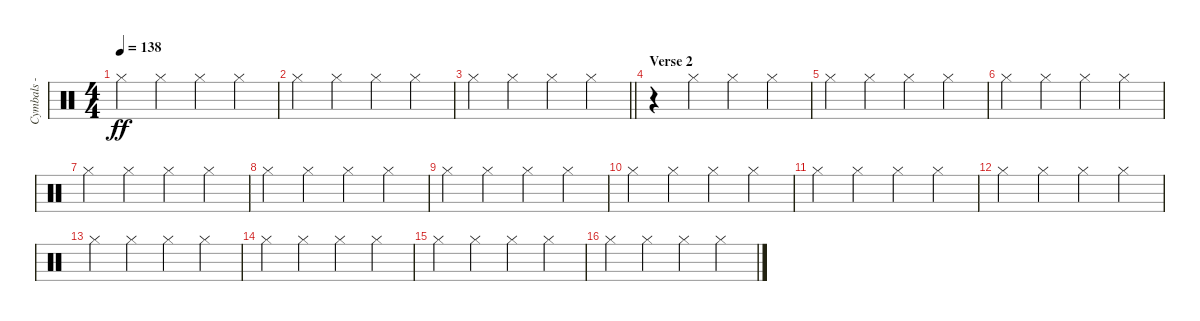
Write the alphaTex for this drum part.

\track ("Cymbals - hi-hat" "Cymbals - ") {instrument percussion}
\staff {score}
\articulation defaults
\ts (4 4)
\tempo 138
\clef neutral
\ks c "Hi-Hat (closed)".4{dy ff} "Hi-Hat (closed)".4 "Hi-Hat (closed)".4 "Hi-Hat (closed)".4
|
"Hi-Hat (closed)".4 "Hi-Hat (closed)".4 "Hi-Hat (closed)".4 "Hi-Hat (closed)".4 |
\barLineRight lightlight "Hi-Hat (closed)".4 "Hi-Hat (closed)".4 "Hi-Hat (closed)".4 "Hi-Hat (closed)".4
|
\section ("" "Verse 2")
r.4 "Hi-Hat (closed)".4 "Hi-Hat (closed)".4 "Hi-Hat (closed)".4 |
"Hi-Hat (closed)".4 "Hi-Hat (closed)".4 "Hi-Hat (closed)".4 "Hi-Hat (closed)".4 |
"Hi-Hat (closed)".4 "Hi-Hat (closed)".4 "Hi-Hat (closed)".4 "Hi-Hat (closed)".4 |
"Hi-Hat (closed)".4 "Hi-Hat (closed)".4 "Hi-Hat (closed)".4 "Hi-Hat (closed)".4 |
"Hi-Hat (closed)".4 "Hi-Hat (closed)".4 "Hi-Hat (closed)".4 "Hi-Hat (closed)".4 |
"Hi-Hat (closed)".4 "Hi-Hat (closed)".4 "Hi-Hat (closed)".4 "Hi-Hat (closed)".4 |
"Hi-Hat (closed)".4 "Hi-Hat (closed)".4 "Hi-Hat (closed)".4 "Hi-Hat (closed)".4 |
"Hi-Hat (closed)".4 "Hi-Hat (closed)".4 "Hi-Hat (closed)".4 "Hi-Hat (closed)".4 |
"Hi-Hat (closed)".4 "Hi-Hat (closed)".4 "Hi-Hat (closed)".4 "Hi-Hat (closed)".4 |
"Hi-Hat (closed)".4 "Hi-Hat (closed)".4 "Hi-Hat (closed)".4 "Hi-Hat (closed)".4 |
"Hi-Hat (closed)".4 "Hi-Hat (closed)".4 "Hi-Hat (closed)".4 "Hi-Hat (closed)".4 |
"Hi-Hat (closed)".4 "Hi-Hat (closed)".4 "Hi-Hat (closed)".4 "Hi-Hat (closed)".4 |
"Hi-Hat (closed)".4 "Hi-Hat (closed)".4 "Hi-Hat (closed)".4 "Hi-Hat (closed)".4
